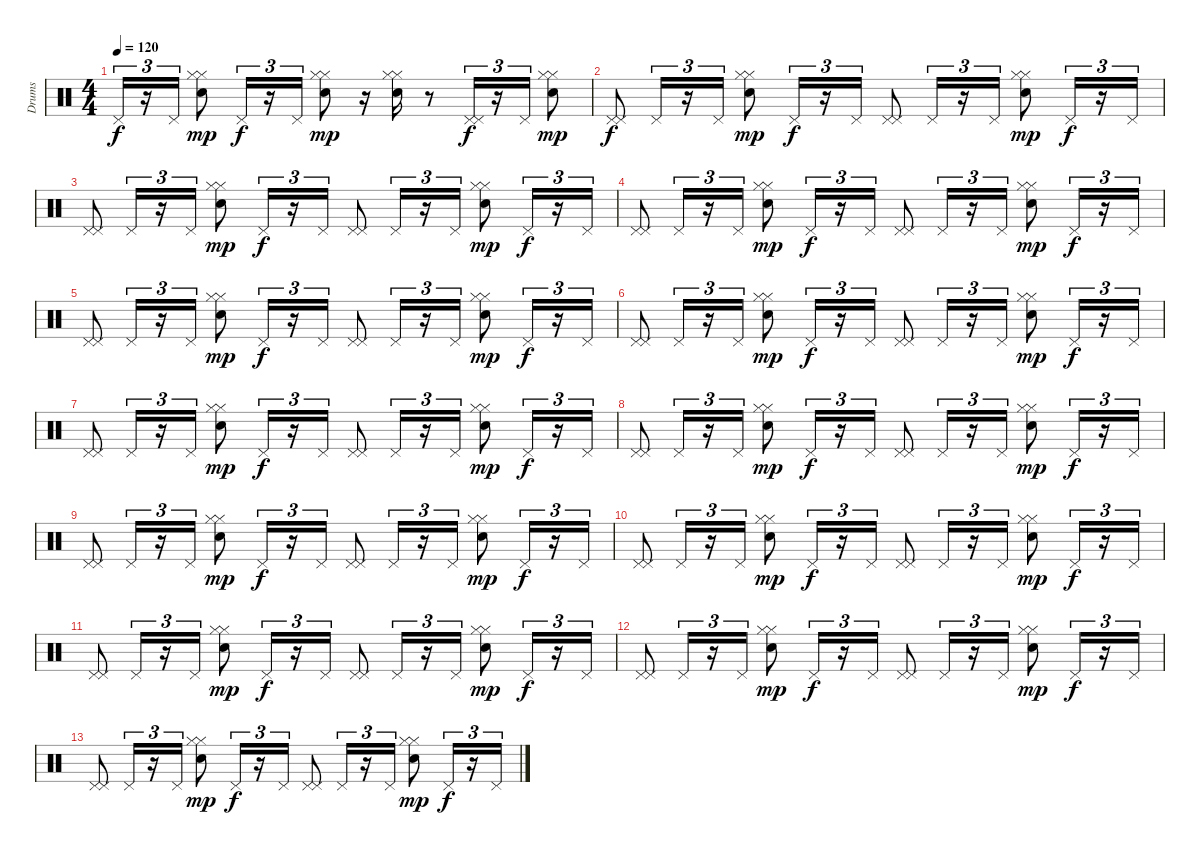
\track ("Drums" "Drums") {instrument percussion}
\staff {score}
\articulation defaults
\ts (4 4)
\tempo 120
\clef neutral
\ks c "Pedal Hi-Hat (hit)".16{tu (3 2) dy f}
r.16{tu (3 2)} "Pedal Hi-Hat (hit)".16{tu (3 2)} ("Hi-Hat (closed)" "Hi-Hat (closed)" "Electric Snare (hit)").8{dy mp} "Pedal Hi-Hat (hit)".16{tu (3 2) dy f} r.16{tu (3 2)} "Pedal Hi-Hat (hit)".16{tu (3 2)} ("Hi-Hat (closed)" "Hi-Hat (closed)" "Electric Snare (hit)").8{dy mp} r.16 ("Hi-Hat (closed)" "Hi-Hat (closed)" "Electric Snare (hit)").16 r.8 ("Pedal Hi-Hat (hit)" "Pedal Hi-Hat (hit)").16{tu (3 2) dy f} r.16{tu (3 2)} "Pedal Hi-Hat (hit)".16{tu (3 2)} ("Hi-Hat (closed)" "Hi-Hat (closed)" "Electric Snare (hit)").8{dy mp} |
("Pedal Hi-Hat (hit)" "Pedal Hi-Hat (hit)").8{dy f} "Pedal Hi-Hat (hit)".16{tu (3 2)} r.16{tu (3 2)} "Pedal Hi-Hat (hit)".16{tu (3 2)} ("Hi-Hat (closed)" "Hi-Hat (closed)" "Electric Snare (hit)").8{dy mp} "Pedal Hi-Hat (hit)".16{tu (3 2) dy f} r.16{tu (3 2)} "Pedal Hi-Hat (hit)".16{tu (3 2)} ("Pedal Hi-Hat (hit)" "Pedal Hi-Hat (hit)").8 "Pedal Hi-Hat (hit)".16{tu (3 2)} r.16{tu (3 2)} "Pedal Hi-Hat (hit)".16{tu (3 2)} ("Hi-Hat (closed)" "Hi-Hat (closed)" "Electric Snare (hit)").8{dy mp} "Pedal Hi-Hat (hit)".16{tu (3 2) dy f} r.16{tu (3 2)} "Pedal Hi-Hat (hit)".16{tu (3 2)} |
("Pedal Hi-Hat (hit)" "Pedal Hi-Hat (hit)").8 "Pedal Hi-Hat (hit)".16{tu (3 2)} r.16{tu (3 2)} "Pedal Hi-Hat (hit)".16{tu (3 2)} ("Hi-Hat (closed)" "Hi-Hat (closed)" "Electric Snare (hit)").8{dy mp} "Pedal Hi-Hat (hit)".16{tu (3 2) dy f} r.16{tu (3 2)} "Pedal Hi-Hat (hit)".16{tu (3 2)} ("Pedal Hi-Hat (hit)" "Pedal Hi-Hat (hit)").8 "Pedal Hi-Hat (hit)".16{tu (3 2)} r.16{tu (3 2)} "Pedal Hi-Hat (hit)".16{tu (3 2)} ("Hi-Hat (closed)" "Hi-Hat (closed)" "Electric Snare (hit)").8{dy mp} "Pedal Hi-Hat (hit)".16{tu (3 2) dy f} r.16{tu (3 2)} "Pedal Hi-Hat (hit)".16{tu (3 2)} |
("Pedal Hi-Hat (hit)" "Pedal Hi-Hat (hit)").8 "Pedal Hi-Hat (hit)".16{tu (3 2)} r.16{tu (3 2)} "Pedal Hi-Hat (hit)".16{tu (3 2)} ("Hi-Hat (closed)" "Hi-Hat (closed)" "Electric Snare (hit)").8{dy mp} "Pedal Hi-Hat (hit)".16{tu (3 2) dy f} r.16{tu (3 2)} "Pedal Hi-Hat (hit)".16{tu (3 2)} ("Pedal Hi-Hat (hit)" "Pedal Hi-Hat (hit)").8 "Pedal Hi-Hat (hit)".16{tu (3 2)} r.16{tu (3 2)} "Pedal Hi-Hat (hit)".16{tu (3 2)} ("Hi-Hat (closed)" "Hi-Hat (closed)" "Electric Snare (hit)").8{dy mp} "Pedal Hi-Hat (hit)".16{tu (3 2) dy f} r.16{tu (3 2)} "Pedal Hi-Hat (hit)".16{tu (3 2)} |
("Pedal Hi-Hat (hit)" "Pedal Hi-Hat (hit)").8 "Pedal Hi-Hat (hit)".16{tu (3 2)} r.16{tu (3 2)} "Pedal Hi-Hat (hit)".16{tu (3 2)} ("Hi-Hat (closed)" "Hi-Hat (closed)" "Electric Snare (hit)").8{dy mp} "Pedal Hi-Hat (hit)".16{tu (3 2) dy f} r.16{tu (3 2)} "Pedal Hi-Hat (hit)".16{tu (3 2)} ("Pedal Hi-Hat (hit)" "Pedal Hi-Hat (hit)").8 "Pedal Hi-Hat (hit)".16{tu (3 2)} r.16{tu (3 2)} "Pedal Hi-Hat (hit)".16{tu (3 2)} ("Hi-Hat (closed)" "Hi-Hat (closed)" "Electric Snare (hit)").8{dy mp} "Pedal Hi-Hat (hit)".16{tu (3 2) dy f} r.16{tu (3 2)} "Pedal Hi-Hat (hit)".16{tu (3 2)} |
("Pedal Hi-Hat (hit)" "Pedal Hi-Hat (hit)").8 "Pedal Hi-Hat (hit)".16{tu (3 2)} r.16{tu (3 2)} "Pedal Hi-Hat (hit)".16{tu (3 2)} ("Hi-Hat (closed)" "Hi-Hat (closed)" "Electric Snare (hit)").8{dy mp} "Pedal Hi-Hat (hit)".16{tu (3 2) dy f} r.16{tu (3 2)} "Pedal Hi-Hat (hit)".16{tu (3 2)} ("Pedal Hi-Hat (hit)" "Pedal Hi-Hat (hit)").8 "Pedal Hi-Hat (hit)".16{tu (3 2)} r.16{tu (3 2)} "Pedal Hi-Hat (hit)".16{tu (3 2)} ("Hi-Hat (closed)" "Hi-Hat (closed)" "Electric Snare (hit)").8{dy mp} "Pedal Hi-Hat (hit)".16{tu (3 2) dy f} r.16{tu (3 2)} "Pedal Hi-Hat (hit)".16{tu (3 2)} |
("Pedal Hi-Hat (hit)" "Pedal Hi-Hat (hit)").8 "Pedal Hi-Hat (hit)".16{tu (3 2)} r.16{tu (3 2)} "Pedal Hi-Hat (hit)".16{tu (3 2)} ("Hi-Hat (closed)" "Hi-Hat (closed)" "Electric Snare (hit)").8{dy mp} "Pedal Hi-Hat (hit)".16{tu (3 2) dy f} r.16{tu (3 2)} "Pedal Hi-Hat (hit)".16{tu (3 2)} ("Pedal Hi-Hat (hit)" "Pedal Hi-Hat (hit)").8 "Pedal Hi-Hat (hit)".16{tu (3 2)} r.16{tu (3 2)} "Pedal Hi-Hat (hit)".16{tu (3 2)} ("Hi-Hat (closed)" "Hi-Hat (closed)" "Electric Snare (hit)").8{dy mp} "Pedal Hi-Hat (hit)".16{tu (3 2) dy f} r.16{tu (3 2)} "Pedal Hi-Hat (hit)".16{tu (3 2)} |
("Pedal Hi-Hat (hit)" "Pedal Hi-Hat (hit)").8 "Pedal Hi-Hat (hit)".16{tu (3 2)} r.16{tu (3 2)} "Pedal Hi-Hat (hit)".16{tu (3 2)} ("Hi-Hat (closed)" "Hi-Hat (closed)" "Electric Snare (hit)").8{dy mp} "Pedal Hi-Hat (hit)".16{tu (3 2) dy f} r.16{tu (3 2)} "Pedal Hi-Hat (hit)".16{tu (3 2)} ("Pedal Hi-Hat (hit)" "Pedal Hi-Hat (hit)").8 "Pedal Hi-Hat (hit)".16{tu (3 2)} r.16{tu (3 2)} "Pedal Hi-Hat (hit)".16{tu (3 2)} ("Hi-Hat (closed)" "Hi-Hat (closed)" "Electric Snare (hit)").8{dy mp} "Pedal Hi-Hat (hit)".16{tu (3 2) dy f} r.16{tu (3 2)} "Pedal Hi-Hat (hit)".16{tu (3 2)} |
("Pedal Hi-Hat (hit)" "Pedal Hi-Hat (hit)").8 "Pedal Hi-Hat (hit)".16{tu (3 2)} r.16{tu (3 2)} "Pedal Hi-Hat (hit)".16{tu (3 2)} ("Hi-Hat (closed)" "Hi-Hat (closed)" "Electric Snare (hit)").8{dy mp} "Pedal Hi-Hat (hit)".16{tu (3 2) dy f} r.16{tu (3 2)} "Pedal Hi-Hat (hit)".16{tu (3 2)} ("Pedal Hi-Hat (hit)" "Pedal Hi-Hat (hit)").8 "Pedal Hi-Hat (hit)".16{tu (3 2)} r.16{tu (3 2)} "Pedal Hi-Hat (hit)".16{tu (3 2)} ("Hi-Hat (closed)" "Hi-Hat (closed)" "Electric Snare (hit)").8{dy mp} "Pedal Hi-Hat (hit)".16{tu (3 2) dy f} r.16{tu (3 2)} "Pedal Hi-Hat (hit)".16{tu (3 2)} |
("Pedal Hi-Hat (hit)" "Pedal Hi-Hat (hit)").8 "Pedal Hi-Hat (hit)".16{tu (3 2)} r.16{tu (3 2)} "Pedal Hi-Hat (hit)".16{tu (3 2)} ("Hi-Hat (closed)" "Hi-Hat (closed)" "Electric Snare (hit)").8{dy mp} "Pedal Hi-Hat (hit)".16{tu (3 2) dy f} r.16{tu (3 2)} "Pedal Hi-Hat (hit)".16{tu (3 2)} ("Pedal Hi-Hat (hit)" "Pedal Hi-Hat (hit)").8 "Pedal Hi-Hat (hit)".16{tu (3 2)} r.16{tu (3 2)} "Pedal Hi-Hat (hit)".16{tu (3 2)} ("Hi-Hat (closed)" "Hi-Hat (closed)" "Electric Snare (hit)").8{dy mp} "Pedal Hi-Hat (hit)".16{tu (3 2) dy f} r.16{tu (3 2)} "Pedal Hi-Hat (hit)".16{tu (3 2)} |
("Pedal Hi-Hat (hit)" "Pedal Hi-Hat (hit)").8 "Pedal Hi-Hat (hit)".16{tu (3 2)} r.16{tu (3 2)} "Pedal Hi-Hat (hit)".16{tu (3 2)} ("Hi-Hat (closed)" "Hi-Hat (closed)" "Electric Snare (hit)").8{dy mp} "Pedal Hi-Hat (hit)".16{tu (3 2) dy f} r.16{tu (3 2)} "Pedal Hi-Hat (hit)".16{tu (3 2)} ("Pedal Hi-Hat (hit)" "Pedal Hi-Hat (hit)").8 "Pedal Hi-Hat (hit)".16{tu (3 2)} r.16{tu (3 2)} "Pedal Hi-Hat (hit)".16{tu (3 2)} ("Hi-Hat (closed)" "Hi-Hat (closed)" "Electric Snare (hit)").8{dy mp} "Pedal Hi-Hat (hit)".16{tu (3 2) dy f} r.16{tu (3 2)} "Pedal Hi-Hat (hit)".16{tu (3 2)} |
("Pedal Hi-Hat (hit)" "Pedal Hi-Hat (hit)").8 "Pedal Hi-Hat (hit)".16{tu (3 2)} r.16{tu (3 2)} "Pedal Hi-Hat (hit)".16{tu (3 2)} ("Hi-Hat (closed)" "Hi-Hat (closed)" "Electric Snare (hit)").8{dy mp} "Pedal Hi-Hat (hit)".16{tu (3 2) dy f} r.16{tu (3 2)} "Pedal Hi-Hat (hit)".16{tu (3 2)} ("Pedal Hi-Hat (hit)" "Pedal Hi-Hat (hit)").8 "Pedal Hi-Hat (hit)".16{tu (3 2)} r.16{tu (3 2)} "Pedal Hi-Hat (hit)".16{tu (3 2)} ("Hi-Hat (closed)" "Hi-Hat (closed)" "Electric Snare (hit)").8{dy mp} "Pedal Hi-Hat (hit)".16{tu (3 2) dy f} r.16{tu (3 2)} "Pedal Hi-Hat (hit)".16{tu (3 2)} |
("Pedal Hi-Hat (hit)" "Pedal Hi-Hat (hit)").8 "Pedal Hi-Hat (hit)".16{tu (3 2)} r.16{tu (3 2)} "Pedal Hi-Hat (hit)".16{tu (3 2)} ("Hi-Hat (closed)" "Hi-Hat (closed)" "Electric Snare (hit)").8{dy mp} "Pedal Hi-Hat (hit)".16{tu (3 2) dy f} r.16{tu (3 2)} "Pedal Hi-Hat (hit)".16{tu (3 2)} ("Pedal Hi-Hat (hit)" "Pedal Hi-Hat (hit)").8 "Pedal Hi-Hat (hit)".16{tu (3 2)} r.16{tu (3 2)} "Pedal Hi-Hat (hit)".16{tu (3 2)} ("Hi-Hat (closed)" "Hi-Hat (closed)" "Electric Snare (hit)").8{dy mp} "Pedal Hi-Hat (hit)".16{tu (3 2) dy f} r.16{tu (3 2)} "Pedal Hi-Hat (hit)".16{tu (3 2)}
